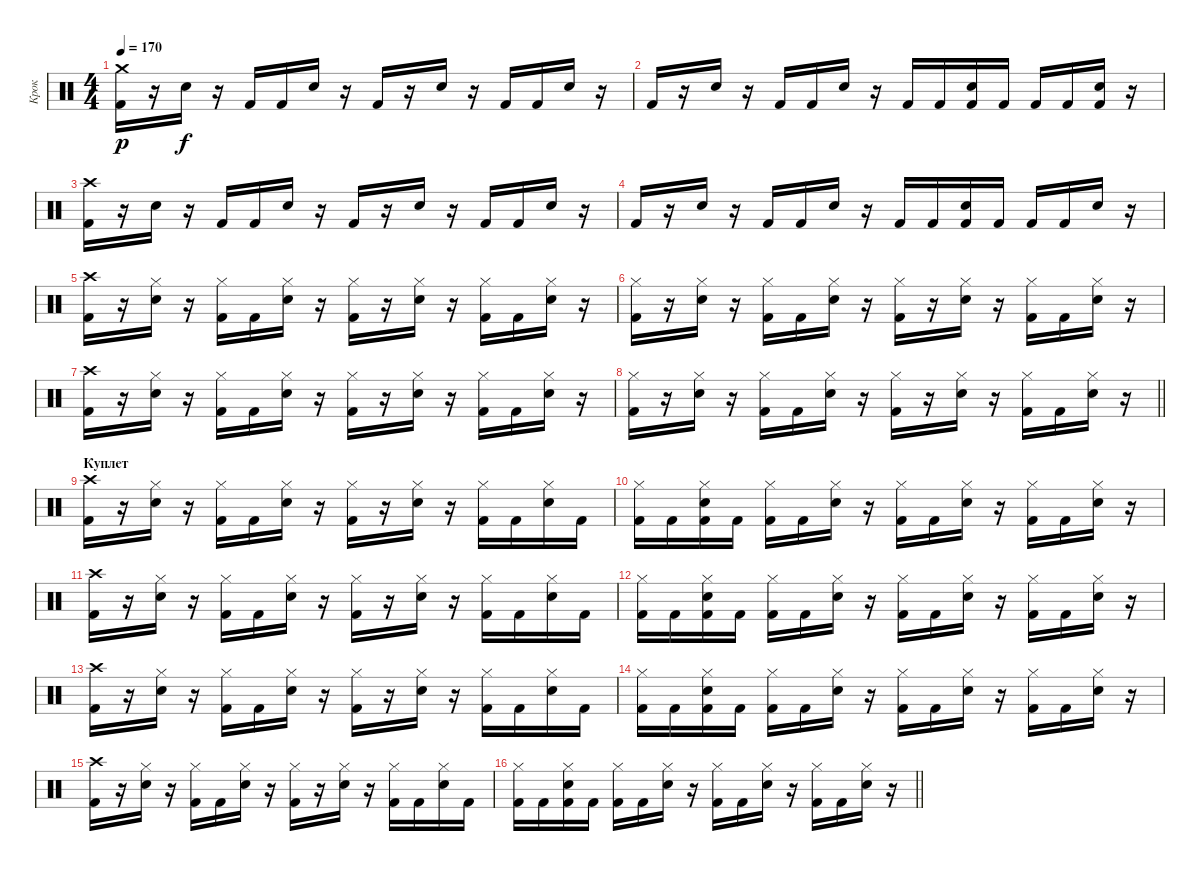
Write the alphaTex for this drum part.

\track ("Крок" "Крок") {instrument percussion}
\staff {score}
\articulation defaults
\ts (4 4)
\tempo 170
\clef neutral
\ks aminor
("Crash medium (hit)" "Kick (hit) 2").16{dy p} r.16 "Electric Snare (hit)".16{dy f} r.16 "Kick (hit) 2".16 "Kick (hit) 2".16 "Electric Snare (hit)".16 r.16 "Kick (hit) 2".16 r.16 "Electric Snare (hit)".16 r.16 "Kick (hit) 2".16 "Kick (hit) 2".16 "Electric Snare (hit)".16 r.16 |
"Kick (hit) 2".16 r.16 "Electric Snare (hit)".16 r.16 "Kick (hit) 2".16 "Kick (hit) 2".16 "Electric Snare (hit)".16 r.16 "Kick (hit) 2".16 "Kick (hit) 2".16 ("Electric Snare (hit)" "Kick (hit) 2").16 "Kick (hit) 2".16 "Kick (hit) 2".16 "Kick (hit) 2".16 ("Electric Snare (hit)" "Kick (hit) 2").16 r.16 |
("Kick (hit) 2" "Crash high (hit)").16 r.16 "Electric Snare (hit)".16 r.16 "Kick (hit) 2".16 "Kick (hit) 2".16 "Electric Snare (hit)".16 r.16 "Kick (hit) 2".16 r.16 "Electric Snare (hit)".16 r.16 "Kick (hit) 2".16 "Kick (hit) 2".16 "Electric Snare (hit)".16 r.16 |
"Kick (hit) 2".16 r.16 "Electric Snare (hit)".16 r.16 "Kick (hit) 2".16 "Kick (hit) 2".16 "Electric Snare (hit)".16 r.16 "Kick (hit) 2".16 "Kick (hit) 2".16 ("Electric Snare (hit)" "Kick (hit) 2").16 "Kick (hit) 2".16 "Kick (hit) 2".16 "Kick (hit) 2".16 "Electric Snare (hit)".16 r.16 |
("Kick (hit) 2" "Crash high (hit)").16 r.16 ("Electric Snare (hit)" "Hi-Hat (closed)").16 r.16 ("Kick (hit) 2" "Hi-Hat (closed)").16 "Kick (hit) 2".16 ("Electric Snare (hit)" "Hi-Hat (closed)").16 r.16 ("Kick (hit) 2" "Hi-Hat (closed)").16 r.16 ("Electric Snare (hit)" "Hi-Hat (closed)").16 r.16 ("Kick (hit) 2" "Hi-Hat (closed)").16 "Kick (hit) 2".16 ("Electric Snare (hit)" "Hi-Hat (closed)").16 r.16 |
("Kick (hit) 2" "Hi-Hat (closed)").16 r.16 ("Electric Snare (hit)" "Hi-Hat (closed)").16 r.16 ("Kick (hit) 2" "Hi-Hat (closed)").16 "Kick (hit) 2".16 ("Electric Snare (hit)" "Hi-Hat (closed)").16 r.16 ("Kick (hit) 2" "Hi-Hat (closed)").16 r.16 ("Electric Snare (hit)" "Hi-Hat (closed)").16 r.16 ("Kick (hit) 2" "Hi-Hat (closed)").16 "Kick (hit) 2".16 ("Electric Snare (hit)" "Hi-Hat (closed)").16 r.16 |
("Kick (hit) 2" "Crash high (hit)").16 r.16 ("Electric Snare (hit)" "Hi-Hat (closed)").16 r.16 ("Kick (hit) 2" "Hi-Hat (closed)").16 "Kick (hit) 2".16 ("Electric Snare (hit)" "Hi-Hat (closed)").16 r.16 ("Kick (hit) 2" "Hi-Hat (closed)").16 r.16 ("Electric Snare (hit)" "Hi-Hat (closed)").16 r.16 ("Kick (hit) 2" "Hi-Hat (closed)").16 "Kick (hit) 2".16 ("Electric Snare (hit)" "Hi-Hat (closed)").16 r.16 |
\barLineRight lightlight
("Kick (hit) 2" "Hi-Hat (closed)").16 r.16 ("Electric Snare (hit)" "Hi-Hat (closed)").16 r.16 ("Kick (hit) 2" "Hi-Hat (closed)").16 "Kick (hit) 2".16 ("Electric Snare (hit)" "Hi-Hat (closed)").16 r.16 ("Kick (hit) 2" "Hi-Hat (closed)").16 r.16 ("Electric Snare (hit)" "Hi-Hat (closed)").16 r.16 ("Kick (hit) 2" "Hi-Hat (closed)").16 "Kick (hit) 2".16 ("Electric Snare (hit)" "Hi-Hat (closed)").16 r.16 |
\section ("" "Куплет")
("Kick (hit) 2" "Crash high (hit)").16 r.16 ("Electric Snare (hit)" "Hi-Hat (closed)").16 r.16 ("Kick (hit) 2" "Hi-Hat (closed)").16 "Kick (hit) 2".16 ("Electric Snare (hit)" "Hi-Hat (closed)").16 r.16 ("Kick (hit) 2" "Hi-Hat (closed)").16 r.16 ("Electric Snare (hit)" "Hi-Hat (closed)").16 r.16 ("Kick (hit) 2" "Hi-Hat (closed)").16 "Kick (hit) 2".16 ("Electric Snare (hit)" "Hi-Hat (closed)").16 "Kick (hit) 2".16 |
("Kick (hit) 2" "Hi-Hat (closed)").16 "Kick (hit) 2".16 ("Kick (hit) 2" "Electric Snare (hit)" "Hi-Hat (closed)").16 "Kick (hit) 2".16 ("Kick (hit) 2" "Hi-Hat (closed)").16 "Kick (hit) 2".16 ("Electric Snare (hit)" "Hi-Hat (closed)").16 r.16 ("Kick (hit) 2" "Hi-Hat (closed)").16 "Kick (hit) 2".16 ("Electric Snare (hit)" "Hi-Hat (closed)").16 r.16 ("Kick (hit) 2" "Hi-Hat (closed)").16 "Kick (hit) 2".16 ("Electric Snare (hit)" "Hi-Hat (closed)").16 r.16 |
("Kick (hit) 2" "Crash high (hit)").16 r.16 ("Electric Snare (hit)" "Hi-Hat (closed)").16 r.16 ("Kick (hit) 2" "Hi-Hat (closed)").16 "Kick (hit) 2".16 ("Electric Snare (hit)" "Hi-Hat (closed)").16 r.16 ("Kick (hit) 2" "Hi-Hat (closed)").16 r.16 ("Electric Snare (hit)" "Hi-Hat (closed)").16 r.16 ("Kick (hit) 2" "Hi-Hat (closed)").16 "Kick (hit) 2".16 ("Electric Snare (hit)" "Hi-Hat (closed)").16 "Kick (hit) 2".16 |
("Kick (hit) 2" "Hi-Hat (closed)").16 "Kick (hit) 2".16 ("Kick (hit) 2" "Electric Snare (hit)" "Hi-Hat (closed)").16 "Kick (hit) 2".16 ("Kick (hit) 2" "Hi-Hat (closed)").16 "Kick (hit) 2".16 ("Electric Snare (hit)" "Hi-Hat (closed)").16 r.16 ("Kick (hit) 2" "Hi-Hat (closed)").16 "Kick (hit) 2".16 ("Electric Snare (hit)" "Hi-Hat (closed)").16 r.16 ("Kick (hit) 2" "Hi-Hat (closed)").16 "Kick (hit) 2".16 ("Electric Snare (hit)" "Hi-Hat (closed)").16 r.16 |
("Kick (hit) 2" "Crash high (hit)").16 r.16 ("Electric Snare (hit)" "Hi-Hat (closed)").16 r.16 ("Kick (hit) 2" "Hi-Hat (closed)").16 "Kick (hit) 2".16 ("Electric Snare (hit)" "Hi-Hat (closed)").16 r.16 ("Kick (hit) 2" "Hi-Hat (closed)").16 r.16 ("Electric Snare (hit)" "Hi-Hat (closed)").16 r.16 ("Kick (hit) 2" "Hi-Hat (closed)").16 "Kick (hit) 2".16 ("Electric Snare (hit)" "Hi-Hat (closed)").16 "Kick (hit) 2".16 |
("Kick (hit) 2" "Hi-Hat (closed)").16 "Kick (hit) 2".16 ("Kick (hit) 2" "Electric Snare (hit)" "Hi-Hat (closed)").16 "Kick (hit) 2".16 ("Kick (hit) 2" "Hi-Hat (closed)").16 "Kick (hit) 2".16 ("Electric Snare (hit)" "Hi-Hat (closed)").16 r.16 ("Kick (hit) 2" "Hi-Hat (closed)").16 "Kick (hit) 2".16 ("Electric Snare (hit)" "Hi-Hat (closed)").16 r.16 ("Kick (hit) 2" "Hi-Hat (closed)").16 "Kick (hit) 2".16 ("Electric Snare (hit)" "Hi-Hat (closed)").16 r.16 |
("Kick (hit) 2" "Crash high (hit)").16 r.16 ("Electric Snare (hit)" "Hi-Hat (closed)").16 r.16 ("Kick (hit) 2" "Hi-Hat (closed)").16 "Kick (hit) 2".16 ("Electric Snare (hit)" "Hi-Hat (closed)").16 r.16 ("Kick (hit) 2" "Hi-Hat (closed)").16 r.16 ("Electric Snare (hit)" "Hi-Hat (closed)").16 r.16 ("Kick (hit) 2" "Hi-Hat (closed)").16 "Kick (hit) 2".16 ("Electric Snare (hit)" "Hi-Hat (closed)").16 "Kick (hit) 2".16 |
\barLineRight lightlight
("Kick (hit) 2" "Hi-Hat (closed)").16 "Kick (hit) 2".16 ("Kick (hit) 2" "Electric Snare (hit)" "Hi-Hat (closed)").16 "Kick (hit) 2".16 ("Kick (hit) 2" "Hi-Hat (closed)").16 "Kick (hit) 2".16 ("Electric Snare (hit)" "Hi-Hat (closed)").16 r.16 ("Kick (hit) 2" "Hi-Hat (closed)").16 "Kick (hit) 2".16 ("Electric Snare (hit)" "Hi-Hat (closed)").16 r.16 ("Kick (hit) 2" "Hi-Hat (closed)").16 "Kick (hit) 2".16 ("Electric Snare (hit)" "Hi-Hat (closed)").16 r.16
